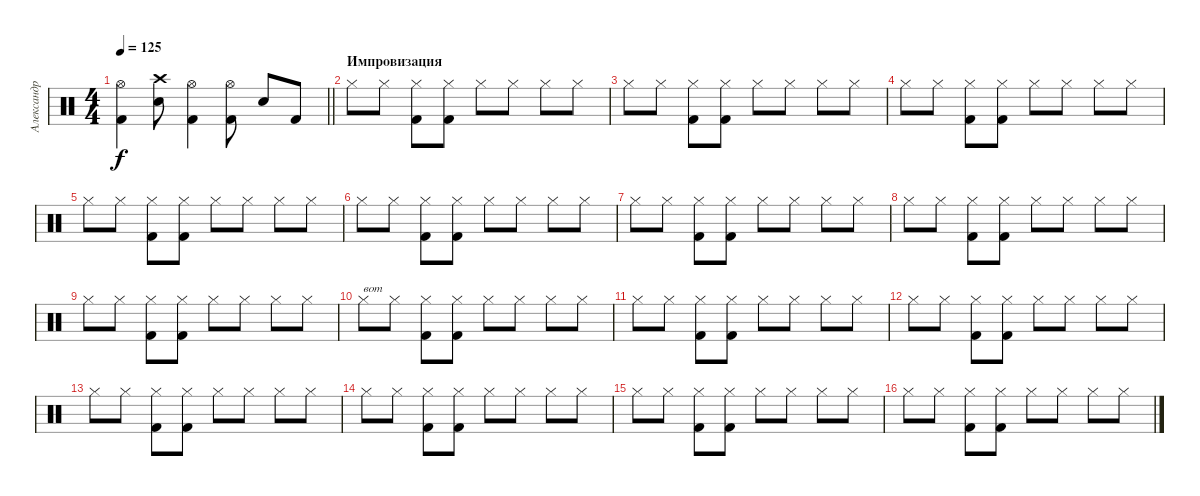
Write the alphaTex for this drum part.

\track ("Александр Манякин" "Александр ") {instrument percussion}
\staff {score}
\articulation defaults
\ts (4 4)
\tempo 125
\clef neutral
\barLineRight lightlight
\ks c
("Kick (hit) 2" "Hi-Hat (open)").4{dy f} ("Snare (hit) 2" "Crash high (hit)").8 ("Kick (hit) 2" "Hi-Hat (open)").4 ("Kick (hit) 2" "Hi-Hat (open)").8 "Snare (hit) 2".8 "Kick (hit) 2".8 |
\section ("" "Импровизация")
"Hi-Hat (closed)".8 "Hi-Hat (closed)".8 ("Kick (hit) 2" "Hi-Hat (closed)").8 ("Kick (hit) 2" "Hi-Hat (closed)").8 "Hi-Hat (closed)".8 "Hi-Hat (closed)".8 "Hi-Hat (closed)".8 "Hi-Hat (closed)".8 |
"Hi-Hat (closed)".8 "Hi-Hat (closed)".8 ("Kick (hit) 2" "Hi-Hat (closed)").8 ("Kick (hit) 2" "Hi-Hat (closed)").8 "Hi-Hat (closed)".8 "Hi-Hat (closed)".8 "Hi-Hat (closed)".8 "Hi-Hat (closed)".8 |
"Hi-Hat (closed)".8 "Hi-Hat (closed)".8 ("Kick (hit) 2" "Hi-Hat (closed)").8 ("Kick (hit) 2" "Hi-Hat (closed)").8 "Hi-Hat (closed)".8 "Hi-Hat (closed)".8 "Hi-Hat (closed)".8 "Hi-Hat (closed)".8 |
"Hi-Hat (closed)".8 "Hi-Hat (closed)".8 ("Kick (hit) 2" "Hi-Hat (closed)").8 ("Kick (hit) 2" "Hi-Hat (closed)").8 "Hi-Hat (closed)".8 "Hi-Hat (closed)".8 "Hi-Hat (closed)".8 "Hi-Hat (closed)".8 |
"Hi-Hat (closed)".8 "Hi-Hat (closed)".8 ("Kick (hit) 2" "Hi-Hat (closed)").8 ("Kick (hit) 2" "Hi-Hat (closed)").8 "Hi-Hat (closed)".8 "Hi-Hat (closed)".8 "Hi-Hat (closed)".8 "Hi-Hat (closed)".8 |
"Hi-Hat (closed)".8 "Hi-Hat (closed)".8 ("Kick (hit) 2" "Hi-Hat (closed)").8 ("Kick (hit) 2" "Hi-Hat (closed)").8 "Hi-Hat (closed)".8 "Hi-Hat (closed)".8 "Hi-Hat (closed)".8 "Hi-Hat (closed)".8 |
"Hi-Hat (closed)".8 "Hi-Hat (closed)".8 ("Kick (hit) 2" "Hi-Hat (closed)").8 ("Kick (hit) 2" "Hi-Hat (closed)").8 "Hi-Hat (closed)".8 "Hi-Hat (closed)".8 "Hi-Hat (closed)".8 "Hi-Hat (closed)".8 |
"Hi-Hat (closed)".8 "Hi-Hat (closed)".8 ("Kick (hit) 2" "Hi-Hat (closed)").8 ("Kick (hit) 2" "Hi-Hat (closed)").8 "Hi-Hat (closed)".8 "Hi-Hat (closed)".8 "Hi-Hat (closed)".8 "Hi-Hat (closed)".8 |
"Hi-Hat (closed)".8{txt "вот"} "Hi-Hat (closed)".8 ("Kick (hit) 2" "Hi-Hat (closed)").8 ("Kick (hit) 2" "Hi-Hat (closed)").8 "Hi-Hat (closed)".8 "Hi-Hat (closed)".8 "Hi-Hat (closed)".8 "Hi-Hat (closed)".8 |
"Hi-Hat (closed)".8 "Hi-Hat (closed)".8 ("Kick (hit) 2" "Hi-Hat (closed)").8 ("Kick (hit) 2" "Hi-Hat (closed)").8 "Hi-Hat (closed)".8 "Hi-Hat (closed)".8 "Hi-Hat (closed)".8 "Hi-Hat (closed)".8 |
"Hi-Hat (closed)".8 "Hi-Hat (closed)".8 ("Kick (hit) 2" "Hi-Hat (closed)").8 ("Kick (hit) 2" "Hi-Hat (closed)").8 "Hi-Hat (closed)".8 "Hi-Hat (closed)".8 "Hi-Hat (closed)".8 "Hi-Hat (closed)".8 |
"Hi-Hat (closed)".8 "Hi-Hat (closed)".8 ("Kick (hit) 2" "Hi-Hat (closed)").8 ("Kick (hit) 2" "Hi-Hat (closed)").8 "Hi-Hat (closed)".8 "Hi-Hat (closed)".8 "Hi-Hat (closed)".8 "Hi-Hat (closed)".8 |
"Hi-Hat (closed)".8 "Hi-Hat (closed)".8 ("Kick (hit) 2" "Hi-Hat (closed)").8 ("Kick (hit) 2" "Hi-Hat (closed)").8 "Hi-Hat (closed)".8 "Hi-Hat (closed)".8 "Hi-Hat (closed)".8 "Hi-Hat (closed)".8 |
"Hi-Hat (closed)".8 "Hi-Hat (closed)".8 ("Kick (hit) 2" "Hi-Hat (closed)").8 ("Kick (hit) 2" "Hi-Hat (closed)").8 "Hi-Hat (closed)".8 "Hi-Hat (closed)".8 "Hi-Hat (closed)".8 "Hi-Hat (closed)".8 |
"Hi-Hat (closed)".8 "Hi-Hat (closed)".8 ("Kick (hit) 2" "Hi-Hat (closed)").8 ("Kick (hit) 2" "Hi-Hat (closed)").8 "Hi-Hat (closed)".8 "Hi-Hat (closed)".8 "Hi-Hat (closed)".8 "Hi-Hat (closed)".8
